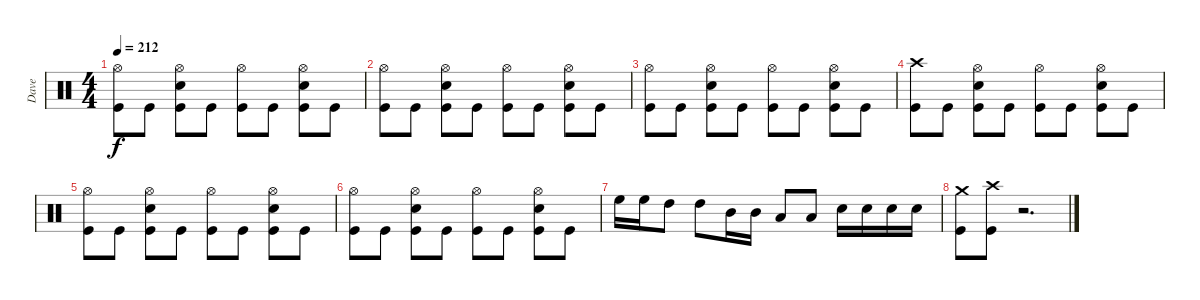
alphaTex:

\track ("Dave" "Dave") {instrument percussion}
\staff {score}
\articulation defaults
\ts (4 4)
\tempo 212
\clef neutral
\ks c
("Hi-Hat (open)" "Kick (hit)").8{dy f} "Kick (hit)".8 ("Hi-Hat (open)" "Snare (hit) 2" "Kick (hit)").8 "Kick (hit)".8 ("Hi-Hat (open)" "Kick (hit)").8 "Kick (hit)".8 ("Hi-Hat (open)" "Snare (hit) 2" "Kick (hit)").8 "Kick (hit)".8 |
("Hi-Hat (open)" "Kick (hit)").8 "Kick (hit)".8 ("Hi-Hat (open)" "Snare (hit) 2" "Kick (hit)").8 "Kick (hit)".8 ("Hi-Hat (open)" "Kick (hit)").8 "Kick (hit)".8 ("Hi-Hat (open)" "Snare (hit) 2" "Kick (hit)").8 "Kick (hit)".8 |
("Hi-Hat (open)" "Kick (hit)").8 "Kick (hit)".8 ("Hi-Hat (open)" "Snare (hit) 2" "Kick (hit)").8 "Kick (hit)".8 ("Hi-Hat (open)" "Kick (hit)").8 "Kick (hit)".8 ("Hi-Hat (open)" "Snare (hit) 2" "Kick (hit)").8 "Kick (hit)".8 |
("Crash high (hit)" "Kick (hit)").8 "Kick (hit)".8 ("Hi-Hat (open)" "Snare (hit) 2" "Kick (hit)").8 "Kick (hit)".8 ("Hi-Hat (open)" "Kick (hit)").8 "Kick (hit)".8 ("Hi-Hat (open)" "Snare (hit) 2" "Kick (hit)").8 "Kick (hit)".8 |
("Hi-Hat (open)" "Kick (hit)").8 "Kick (hit)".8 ("Hi-Hat (open)" "Snare (hit) 2" "Kick (hit)").8 "Kick (hit)".8 ("Hi-Hat (open)" "Kick (hit)").8 "Kick (hit)".8 ("Hi-Hat (open)" "Snare (hit) 2" "Kick (hit)").8 "Kick (hit)".8 |
("Hi-Hat (open)" "Kick (hit)").8 "Kick (hit)".8 ("Hi-Hat (open)" "Snare (hit) 2" "Kick (hit)").8 "Kick (hit)".8 ("Hi-Hat (open)" "Kick (hit)").8 "Kick (hit)".8 ("Hi-Hat (open)" "Snare (hit) 2" "Kick (hit)").8 "Kick (hit)".8 |
"High Floor Tom (hit)".16 "High Floor Tom (hit)".16 "High Tom (hit)".8 "High Tom (hit)".8 "Mid Tom (hit)".16 "Mid Tom (hit)".16 "Low Tom (hit)".8 "Low Tom (hit)".8 "Snare (hit) 2".16 "Snare (hit) 2".16 "Snare (hit) 2".16 "Snare (hit) 2".16 |
("Crash medium (hit)" "Kick (hit)").8 ("Crash high (hit)" "Kick (hit)").8 r.2{d}
